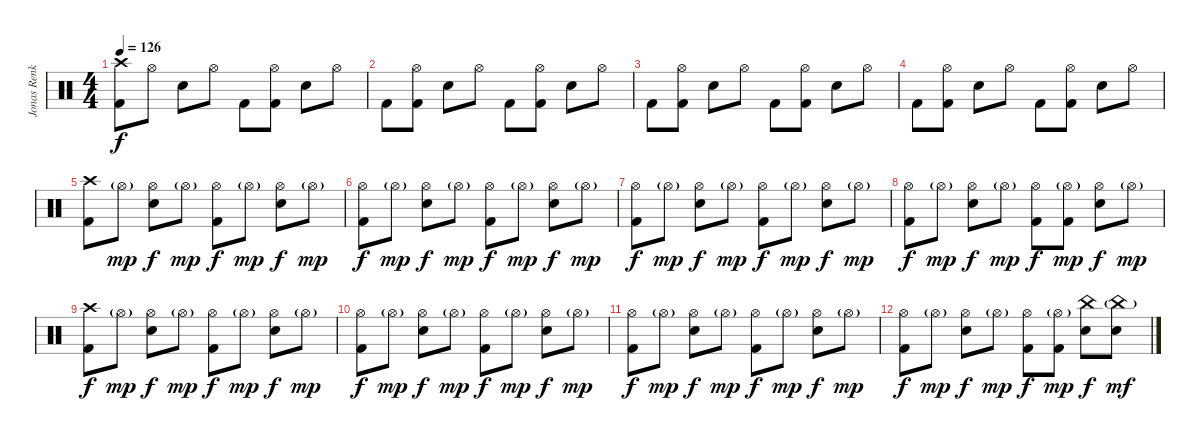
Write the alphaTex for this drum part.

\track ("Jonas Renkse" "Jonas Renk") {instrument percussion}
\staff {score}
\articulation defaults
\ts (4 4)
\tempo 126
\clef neutral
\ks c
("Crash high (hit)" "Kick (hit) 2").8{dy f} "Hi-Hat (open)".8 "Electric Snare (hit)".8 "Hi-Hat (open)".8 "Kick (hit) 2".8 ("Hi-Hat (open)" "Kick (hit) 2").8 "Electric Snare (hit)".8 "Hi-Hat (open)".8 |
"Kick (hit) 2".8 ("Hi-Hat (open)" "Kick (hit) 2").8 "Electric Snare (hit)".8 "Hi-Hat (open)".8 "Kick (hit) 2".8 ("Hi-Hat (open)" "Kick (hit) 2").8 "Electric Snare (hit)".8 "Hi-Hat (open)".8 |
"Kick (hit) 2".8 ("Hi-Hat (open)" "Kick (hit) 2").8 "Electric Snare (hit)".8 "Hi-Hat (open)".8 "Kick (hit) 2".8 ("Hi-Hat (open)" "Kick (hit) 2").8 "Electric Snare (hit)".8 "Hi-Hat (open)".8 |
"Kick (hit) 2".8 ("Hi-Hat (open)" "Kick (hit) 2").8 "Electric Snare (hit)".8 "Hi-Hat (open)".8 "Kick (hit) 2".8 ("Hi-Hat (open)" "Kick (hit) 2").8 "Electric Snare (hit)".8 "Hi-Hat (open)".8 |
("Crash high (hit)" "Kick (hit) 2").8 "Hi-Hat (open)"{g}.8{dy mp} ("Hi-Hat (open)" "Electric Snare (hit)").8{dy f} "Hi-Hat (open)"{g}.8{dy mp} ("Hi-Hat (open)" "Kick (hit) 2").8{dy f} "Hi-Hat (open)"{g}.8{dy mp} ("Hi-Hat (open)" "Electric Snare (hit)").8{dy f} "Hi-Hat (open)"{g}.8{dy mp} |
("Hi-Hat (open)" "Kick (hit) 2").8{dy f} "Hi-Hat (open)"{g}.8{dy mp} ("Hi-Hat (open)" "Electric Snare (hit)").8{dy f} "Hi-Hat (open)"{g}.8{dy mp} ("Hi-Hat (open)" "Kick (hit) 2").8{dy f} "Hi-Hat (open)"{g}.8{dy mp} ("Hi-Hat (open)" "Electric Snare (hit)").8{dy f} "Hi-Hat (open)"{g}.8{dy mp} |
("Hi-Hat (open)" "Kick (hit) 2").8{dy f} "Hi-Hat (open)"{g}.8{dy mp} ("Hi-Hat (open)" "Electric Snare (hit)").8{dy f} "Hi-Hat (open)"{g}.8{dy mp} ("Hi-Hat (open)" "Kick (hit) 2").8{dy f} "Hi-Hat (open)"{g}.8{dy mp} ("Hi-Hat (open)" "Electric Snare (hit)").8{dy f} "Hi-Hat (open)"{g}.8{dy mp} |
("Hi-Hat (open)" "Kick (hit) 2").8{dy f} "Hi-Hat (open)"{g}.8{dy mp} ("Hi-Hat (open)" "Electric Snare (hit)").8{dy f} "Hi-Hat (open)"{g}.8{dy mp} ("Hi-Hat (open)" "Kick (hit) 2").8{dy f} ("Hi-Hat (open)"{g} "Kick (hit) 2").8{dy mp} ("Hi-Hat (open)" "Electric Snare (hit)").8{dy f} "Hi-Hat (open)"{g}.8{dy mp} |
("Crash high (hit)" "Kick (hit) 2").8{dy f} "Hi-Hat (open)"{g}.8{dy mp} ("Hi-Hat (open)" "Electric Snare (hit)").8{dy f} "Hi-Hat (open)"{g}.8{dy mp} ("Hi-Hat (open)" "Kick (hit) 2").8{dy f} "Hi-Hat (open)"{g}.8{dy mp} ("Hi-Hat (open)" "Electric Snare (hit)").8{dy f} "Hi-Hat (open)"{g}.8{dy mp} |
("Hi-Hat (open)" "Kick (hit) 2").8{dy f} "Hi-Hat (open)"{g}.8{dy mp} ("Hi-Hat (open)" "Electric Snare (hit)").8{dy f} "Hi-Hat (open)"{g}.8{dy mp} ("Hi-Hat (open)" "Kick (hit) 2").8{dy f} "Hi-Hat (open)"{g}.8{dy mp} ("Hi-Hat (open)" "Electric Snare (hit)").8{dy f} "Hi-Hat (open)"{g}.8{dy mp} |
("Hi-Hat (open)" "Kick (hit) 2").8{dy f} "Hi-Hat (open)"{g}.8{dy mp} ("Hi-Hat (open)" "Electric Snare (hit)").8{dy f} "Hi-Hat (open)"{g}.8{dy mp} ("Hi-Hat (open)" "Kick (hit) 2").8{dy f} "Hi-Hat (open)"{g}.8{dy mp} ("Hi-Hat (open)" "Electric Snare (hit)").8{dy f} "Hi-Hat (open)"{g}.8{dy mp} |
("Hi-Hat (open)" "Kick (hit) 2").8{dy f} "Hi-Hat (open)"{g}.8{dy mp} ("Hi-Hat (open)" "Electric Snare (hit)").8{dy f} "Hi-Hat (open)"{g}.8{dy mp} ("Hi-Hat (open)" "Kick (hit) 2").8{dy f} ("Hi-Hat (open)"{g} "Kick (hit) 2").8{dy mp} ("China (hit)" "Electric Snare (hit)").8{dy f} ("China (hit)"{g} "Electric Snare (hit)").8{dy mf}
